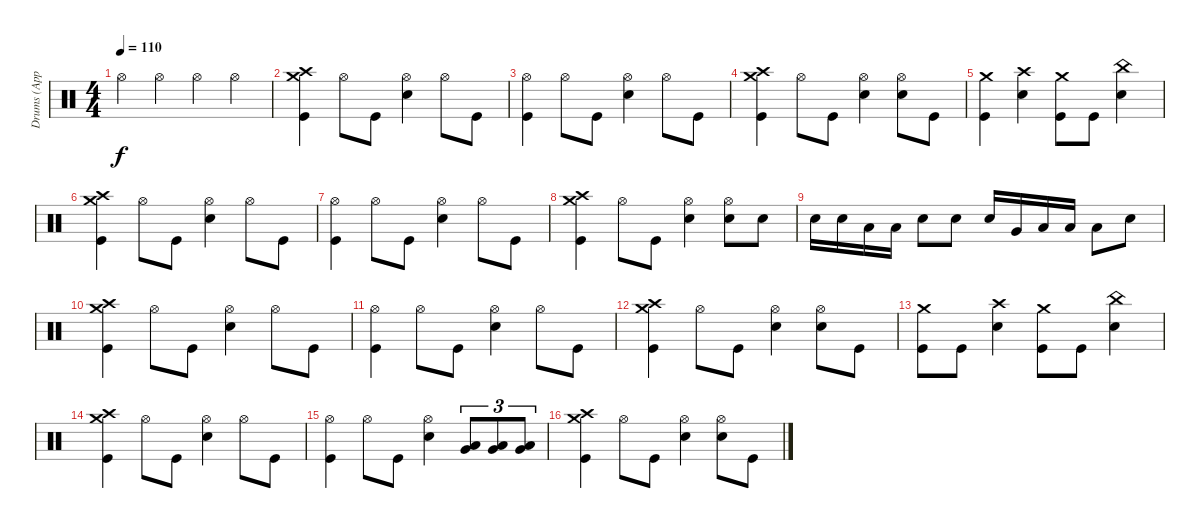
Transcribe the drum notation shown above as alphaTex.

\track ("Drums (Appelhans/Durst)" "Drums (App") {instrument percussion}
\staff {score}
\articulation defaults
\ts (4 4)
\tempo 110
\clef neutral
\ks c "Hi-Hat (open)".4{dy f} "Hi-Hat (open)".4 "Hi-Hat (open)".4 "Hi-Hat (open)".4
|
("Kick (hit)" "Crash medium (hit)" "Crash high (hit)").4 "Hi-Hat (open)".8 "Kick (hit)".8 ("Snare (hit) 2" "Hi-Hat (open)").4 "Hi-Hat (open)".8 "Kick (hit)".8 |
("Hi-Hat (open)" "Kick (hit)").4 "Hi-Hat (open)".8 "Kick (hit)".8 ("Snare (hit) 2" "Hi-Hat (open)").4 "Hi-Hat (open)".8 "Kick (hit)".8 |
("Kick (hit)" "Crash medium (hit)" "Crash high (hit)").4 "Hi-Hat (open)".8 "Kick (hit)".8 ("Snare (hit) 2" "Hi-Hat (open)").4 ("Hi-Hat (open)" "Snare (hit) 2").8 "Kick (hit)".8 |
("Kick (hit)" "Crash medium (hit)").4 ("Snare (hit) 2" "Crash high (hit)").4 ("Kick (hit)" "Crash medium (hit)").8 "Kick (hit)".8 ("Snare (hit) 2" "China (hit)").4 |
("Kick (hit)" "Crash medium (hit)" "Crash high (hit)").4 "Hi-Hat (open)".8 "Kick (hit)".8 ("Snare (hit) 2" "Hi-Hat (open)").4 "Hi-Hat (open)".8 "Kick (hit)".8 |
("Hi-Hat (open)" "Kick (hit)").4 "Hi-Hat (open)".8 "Kick (hit)".8 ("Snare (hit) 2" "Hi-Hat (open)").4 "Hi-Hat (open)".8 "Kick (hit)".8 |
("Kick (hit)" "Crash medium (hit)" "Crash high (hit)").4 "Hi-Hat (open)".8 "Kick (hit)".8 ("Snare (hit) 2" "Hi-Hat (open)").4 ("Hi-Hat (open)" "Snare (hit) 2").8 "Snare (hit) 2".8 |
"Snare (hit) 2".16 "Snare (hit) 2".16 "Low Tom (hit)".16 "Low Tom (hit)".16 "Snare (hit) 2".8 "Snare (hit) 2".8 "Snare (hit) 2".16 "Very Low Tom (hit)".16 "Low Tom (hit)".16 "Low Tom (hit)".16 "Low Floor Tom (hit)".8 "Snare (hit) 2".8 |
("Kick (hit)" "Crash medium (hit)" "Crash high (hit)").4 "Hi-Hat (open)".8 "Kick (hit)".8 ("Snare (hit) 2" "Hi-Hat (open)").4 "Hi-Hat (open)".8 "Kick (hit)".8 |
("Hi-Hat (open)" "Kick (hit)").4 "Hi-Hat (open)".8 "Kick (hit)".8 ("Snare (hit) 2" "Hi-Hat (open)").4 "Hi-Hat (open)".8 "Kick (hit)".8 |
("Kick (hit)" "Crash medium (hit)" "Crash high (hit)").4 "Hi-Hat (open)".8 "Kick (hit)".8 ("Snare (hit) 2" "Hi-Hat (open)").4 ("Hi-Hat (open)" "Snare (hit) 2").8 "Kick (hit)".8 |
("Kick (hit)" "Crash medium (hit)").8 "Kick (hit)".8 ("Snare (hit) 2" "Crash high (hit)").4 ("Kick (hit)" "Crash medium (hit)").8 "Kick (hit)".8 ("Snare (hit) 2" "China (hit)").4 |
("Kick (hit)" "Crash medium (hit)" "Crash high (hit)").4 "Hi-Hat (open)".8 "Kick (hit)".8 ("Snare (hit) 2" "Hi-Hat (open)").4 "Hi-Hat (open)".8 "Kick (hit)".8 |
("Hi-Hat (open)" "Kick (hit)").4 "Hi-Hat (open)".8 "Kick (hit)".8 ("Snare (hit) 2" "Hi-Hat (open)").4 ("Very Low Tom (hit)" "Low Tom (hit)").8{tu (3 2)} ("Very Low Tom (hit)" "Low Tom (hit)").8{tu (3 2)} ("Very Low Tom (hit)" "Low Floor Tom (hit)").8{tu (3 2)} |
("Kick (hit)" "Crash medium (hit)" "Crash high (hit)").4 "Hi-Hat (open)".8 "Kick (hit)".8 ("Snare (hit) 2" "Hi-Hat (open)").4 ("Hi-Hat (open)" "Snare (hit) 2").8 "Kick (hit)".8
